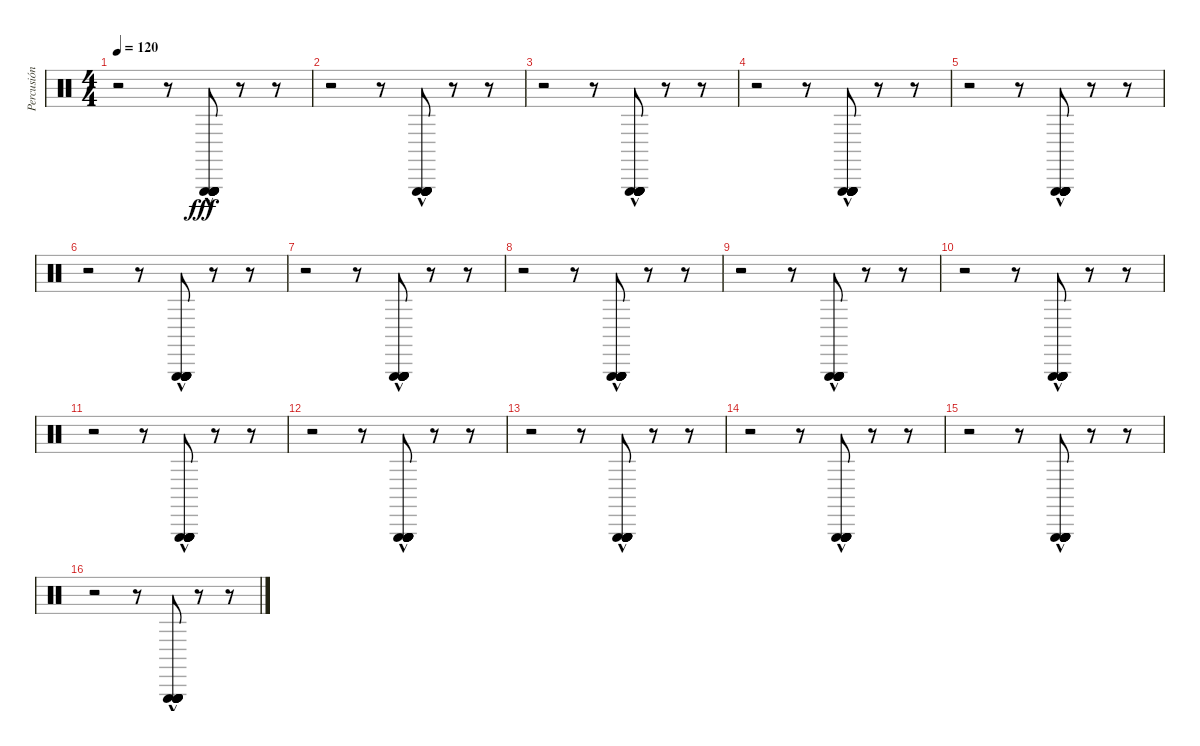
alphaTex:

\track ("Percusión" "Percusión") {instrument percussion}
\staff {score}
\articulation defaults
\ts (4 4)
\tempo 120
\clef neutral
\ks c
r.2{dy fff} r.8 ("Triangle (hit)" "Triangle (hit)" "Triangle (hit)" "Triangle (hit)" "Triangle (hit)" "Triangle (hit)"{hac}).8 r.8 r.8 |
r.2 r.8 ("Triangle (hit)" "Triangle (hit)" "Triangle (hit)" "Triangle (hit)" "Triangle (hit)" "Triangle (hit)"{hac}).8 r.8 r.8 |
r.2 r.8 ("Triangle (hit)" "Triangle (hit)" "Triangle (hit)" "Triangle (hit)" "Triangle (hit)" "Triangle (hit)"{hac}).8 r.8 r.8 |
r.2 r.8 ("Triangle (hit)" "Triangle (hit)" "Triangle (hit)" "Triangle (hit)" "Triangle (hit)" "Triangle (hit)"{hac}).8 r.8 r.8 |
r.2 r.8 ("Triangle (hit)" "Triangle (hit)" "Triangle (hit)" "Triangle (hit)" "Triangle (hit)" "Triangle (hit)"{hac}).8 r.8 r.8 |
r.2 r.8 ("Triangle (hit)" "Triangle (hit)" "Triangle (hit)" "Triangle (hit)" "Triangle (hit)" "Triangle (hit)"{hac}).8 r.8 r.8 |
r.2 r.8 ("Triangle (hit)" "Triangle (hit)" "Triangle (hit)" "Triangle (hit)" "Triangle (hit)" "Triangle (hit)"{hac}).8 r.8 r.8 |
r.2 r.8 ("Triangle (hit)" "Triangle (hit)" "Triangle (hit)" "Triangle (hit)" "Triangle (hit)" "Triangle (hit)"{hac}).8 r.8 r.8 |
r.2 r.8 ("Triangle (hit)" "Triangle (hit)" "Triangle (hit)" "Triangle (hit)" "Triangle (hit)" "Triangle (hit)"{hac}).8 r.8 r.8 |
r.2 r.8 ("Triangle (hit)" "Triangle (hit)" "Triangle (hit)" "Triangle (hit)" "Triangle (hit)" "Triangle (hit)"{hac}).8 r.8 r.8 |
r.2 r.8 ("Triangle (hit)" "Triangle (hit)" "Triangle (hit)" "Triangle (hit)" "Triangle (hit)" "Triangle (hit)"{hac}).8 r.8 r.8 |
r.2 r.8 ("Triangle (hit)" "Triangle (hit)" "Triangle (hit)" "Triangle (hit)" "Triangle (hit)" "Triangle (hit)"{hac}).8 r.8 r.8 |
r.2 r.8 ("Triangle (hit)" "Triangle (hit)" "Triangle (hit)" "Triangle (hit)" "Triangle (hit)" "Triangle (hit)"{hac}).8 r.8 r.8 |
r.2 r.8 ("Triangle (hit)" "Triangle (hit)" "Triangle (hit)" "Triangle (hit)" "Triangle (hit)" "Triangle (hit)"{hac}).8 r.8 r.8 |
r.2 r.8 ("Triangle (hit)" "Triangle (hit)" "Triangle (hit)" "Triangle (hit)" "Triangle (hit)" "Triangle (hit)"{hac}).8 r.8 r.8 |
r.2 r.8 ("Triangle (hit)" "Triangle (hit)" "Triangle (hit)" "Triangle (hit)" "Triangle (hit)" "Triangle (hit)"{hac}).8 r.8 r.8
